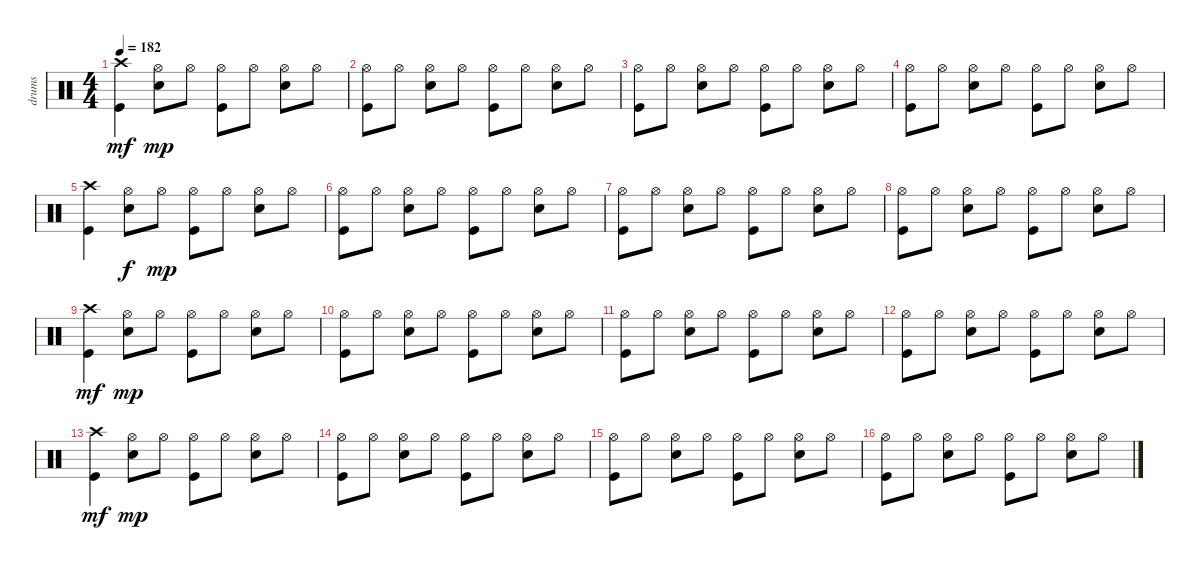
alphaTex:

\track ("drums" "drums") {instrument percussion}
\staff {score}
\articulation defaults
\ts (4 4)
\tempo 182
\clef neutral
\ks c
("Kick (hit)" "Crash high (hit)").4{dy mf} ("Snare (hit) 2" "Hi-Hat (open)").8{dy mp} "Hi-Hat (open)".8 ("Kick (hit)" "Hi-Hat (open)").8 "Hi-Hat (open)".8 ("Snare (hit) 2" "Hi-Hat (open)").8 "Hi-Hat (open)".8 |
("Kick (hit)" "Hi-Hat (open)").8 "Hi-Hat (open)".8 ("Snare (hit) 2" "Hi-Hat (open)").8 "Hi-Hat (open)".8 ("Kick (hit)" "Hi-Hat (open)").8 "Hi-Hat (open)".8 ("Snare (hit) 2" "Hi-Hat (open)").8 "Hi-Hat (open)".8 |
("Kick (hit)" "Hi-Hat (open)").8 "Hi-Hat (open)".8 ("Snare (hit) 2" "Hi-Hat (open)").8 "Hi-Hat (open)".8 ("Kick (hit)" "Hi-Hat (open)").8 "Hi-Hat (open)".8 ("Snare (hit) 2" "Hi-Hat (open)").8 "Hi-Hat (open)".8 |
("Kick (hit)" "Hi-Hat (open)").8 "Hi-Hat (open)".8 ("Snare (hit) 2" "Hi-Hat (open)").8 "Hi-Hat (open)".8 ("Kick (hit)" "Hi-Hat (open)").8 "Hi-Hat (open)".8 ("Snare (hit) 2" "Hi-Hat (open)").8 "Hi-Hat (open)".8 |
("Kick (hit)" "Crash high (hit)").4 ("Snare (hit) 2" "Hi-Hat (open)").8{dy f} "Hi-Hat (open)".8{dy mp} ("Kick (hit)" "Hi-Hat (open)").8 "Hi-Hat (open)".8 ("Snare (hit) 2" "Hi-Hat (open)").8 "Hi-Hat (open)".8 |
("Kick (hit)" "Hi-Hat (open)").8 "Hi-Hat (open)".8 ("Snare (hit) 2" "Hi-Hat (open)").8 "Hi-Hat (open)".8 ("Kick (hit)" "Hi-Hat (open)").8 "Hi-Hat (open)".8 ("Snare (hit) 2" "Hi-Hat (open)").8 "Hi-Hat (open)".8 |
("Kick (hit)" "Hi-Hat (open)").8 "Hi-Hat (open)".8 ("Snare (hit) 2" "Hi-Hat (open)").8 "Hi-Hat (open)".8 ("Kick (hit)" "Hi-Hat (open)").8 "Hi-Hat (open)".8 ("Snare (hit) 2" "Hi-Hat (open)").8 "Hi-Hat (open)".8 |
("Kick (hit)" "Hi-Hat (open)").8 "Hi-Hat (open)".8 ("Snare (hit) 2" "Hi-Hat (open)").8 "Hi-Hat (open)".8 ("Kick (hit)" "Hi-Hat (open)").8 "Hi-Hat (open)".8 ("Snare (hit) 2" "Hi-Hat (open)").8 "Hi-Hat (open)".8 |
("Kick (hit)" "Crash high (hit)").4{dy mf} ("Snare (hit) 2" "Hi-Hat (open)").8{dy mp} "Hi-Hat (open)".8 ("Kick (hit)" "Hi-Hat (open)").8 "Hi-Hat (open)".8 ("Snare (hit) 2" "Hi-Hat (open)").8 "Hi-Hat (open)".8 |
("Kick (hit)" "Hi-Hat (open)").8 "Hi-Hat (open)".8 ("Snare (hit) 2" "Hi-Hat (open)").8 "Hi-Hat (open)".8 ("Kick (hit)" "Hi-Hat (open)").8 "Hi-Hat (open)".8 ("Snare (hit) 2" "Hi-Hat (open)").8 "Hi-Hat (open)".8 |
("Kick (hit)" "Hi-Hat (open)").8 "Hi-Hat (open)".8 ("Snare (hit) 2" "Hi-Hat (open)").8 "Hi-Hat (open)".8 ("Kick (hit)" "Hi-Hat (open)").8 "Hi-Hat (open)".8 ("Snare (hit) 2" "Hi-Hat (open)").8 "Hi-Hat (open)".8 |
("Kick (hit)" "Hi-Hat (open)").8 "Hi-Hat (open)".8 ("Snare (hit) 2" "Hi-Hat (open)").8 "Hi-Hat (open)".8 ("Kick (hit)" "Hi-Hat (open)").8 "Hi-Hat (open)".8 ("Snare (hit) 2" "Hi-Hat (open)").8 "Hi-Hat (open)".8 |
("Kick (hit)" "Crash high (hit)").4{dy mf} ("Snare (hit) 2" "Hi-Hat (open)").8{dy mp} "Hi-Hat (open)".8 ("Kick (hit)" "Hi-Hat (open)").8 "Hi-Hat (open)".8 ("Snare (hit) 2" "Hi-Hat (open)").8 "Hi-Hat (open)".8 |
("Kick (hit)" "Hi-Hat (open)").8 "Hi-Hat (open)".8 ("Snare (hit) 2" "Hi-Hat (open)").8 "Hi-Hat (open)".8 ("Kick (hit)" "Hi-Hat (open)").8 "Hi-Hat (open)".8 ("Snare (hit) 2" "Hi-Hat (open)").8 "Hi-Hat (open)".8 |
("Kick (hit)" "Hi-Hat (open)").8 "Hi-Hat (open)".8 ("Snare (hit) 2" "Hi-Hat (open)").8 "Hi-Hat (open)".8 ("Kick (hit)" "Hi-Hat (open)").8 "Hi-Hat (open)".8 ("Snare (hit) 2" "Hi-Hat (open)").8 "Hi-Hat (open)".8 |
("Kick (hit)" "Hi-Hat (open)").8 "Hi-Hat (open)".8 ("Snare (hit) 2" "Hi-Hat (open)").8 "Hi-Hat (open)".8 ("Kick (hit)" "Hi-Hat (open)").8 "Hi-Hat (open)".8 ("Snare (hit) 2" "Hi-Hat (open)").8 "Hi-Hat (open)".8
